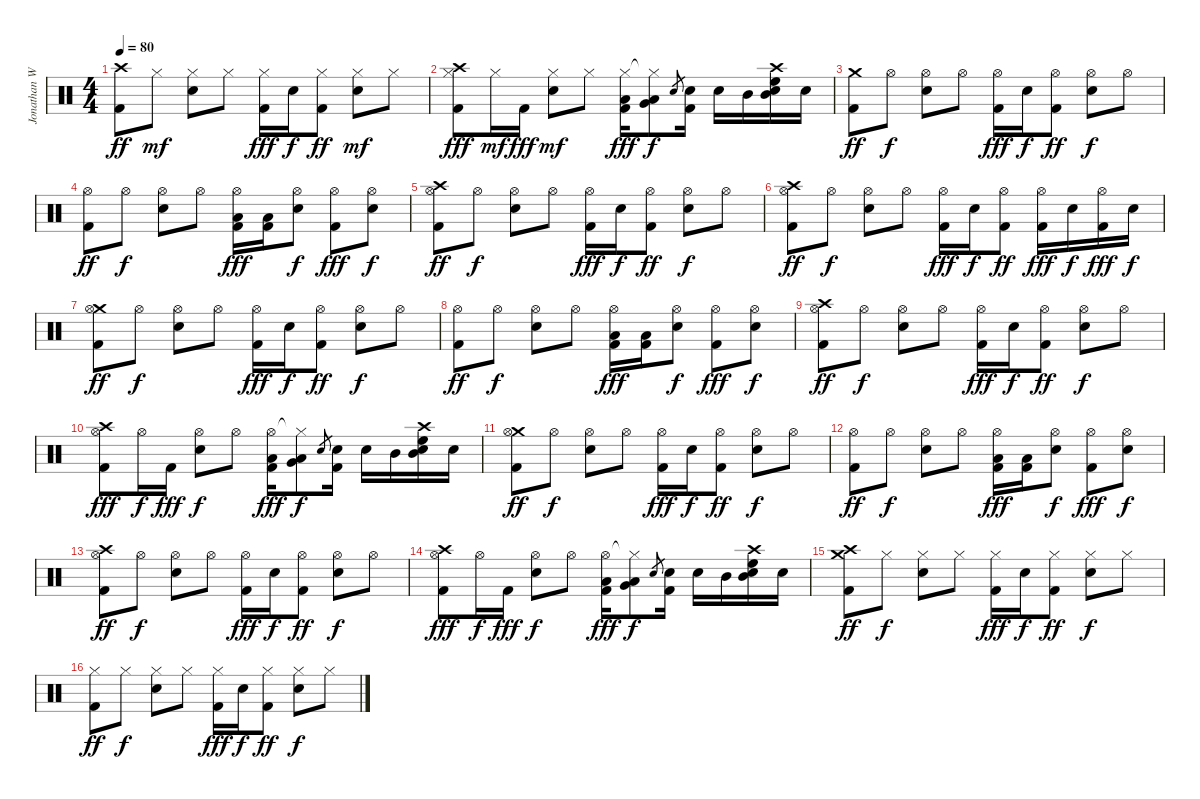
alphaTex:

\track ("Jonathan Wenzel" "Jonathan W") {instrument percussion}
\staff {score}
\articulation defaults
\ts (4 4)
\tempo 80
\clef neutral
\ks c
("Crash high (hit)" "Kick (hit) 2").8{dy ff} "Hi-Hat (closed)".8{dy mf} ("Hi-Hat (closed)" "Electric Snare (hit)").8 "Hi-Hat (closed)".8 ("Hi-Hat (closed)" "Kick (hit) 2").16{dy fff} "Electric Snare (hit)".16{dy f} ("Hi-Hat (closed)" "Kick (hit) 2").8{dy ff} ("Hi-Hat (closed)" "Electric Snare (hit)").8{dy mf} "Hi-Hat (closed)".8 |
("Crash high (hit)" "Hi-Hat (closed)" "Kick (hit) 2").8{dy fff} "Hi-Hat (closed)".16{dy mf} "Kick (hit) 2".16{dy fff} ("Hi-Hat (closed)" "Electric Snare (hit)").8{dy mf} "Hi-Hat (closed)".8 ("Hi-Hat (closed)" "Low Floor Tom (hit)" "Kick (hit) 2").16{dy fff} ("Hi-Hat (closed)"{t} "Low Floor Tom (hit)" "Very Low Tom (hit)").8{dy f} "Electric Snare (hit)".8{gr} ("Electric Snare (hit)" "Kick (hit) 2").16 "Electric Snare (hit)".16 "Mid Tom (hit)".16 ("Crash high (hit)" "High Floor Tom (hit)" "Mid Tom (hit)" "Electric Snare (hit)").16 "Electric Snare (hit)".16 |
("Crash medium (hit)" "Kick (hit) 2").8{dy ff} "Hi-Hat (open)".8{dy f} ("Hi-Hat (open)" "Electric Snare (hit)").8 "Hi-Hat (open)".8 ("Hi-Hat (open)" "Kick (hit) 2").16{dy fff} "Electric Snare (hit)".16{dy f} ("Hi-Hat (open)" "Kick (hit) 2").8{dy ff} ("Hi-Hat (open)" "Electric Snare (hit)").8{dy f} "Hi-Hat (open)".8 |
("Hi-Hat (open)" "Kick (hit) 2").8{dy ff} "Hi-Hat (open)".8{dy f} ("Hi-Hat (open)" "Electric Snare (hit)").8 "Hi-Hat (open)".8 ("Hi-Hat (open)" "Low Floor Tom (hit)" "Kick (hit) 2").16{dy fff} ("Low Floor Tom (hit)" "Kick (hit) 2").16 ("Hi-Hat (open)" "Electric Snare (hit)").8{dy f} ("Hi-Hat (open)" "Kick (hit) 2").8{dy fff} ("Hi-Hat (open)" "Electric Snare (hit)").8{dy f} |
("Crash high (hit)" "Hi-Hat (open)" "Kick (hit) 2").8{dy ff} "Hi-Hat (open)".8{dy f} ("Hi-Hat (open)" "Electric Snare (hit)").8 "Hi-Hat (open)".8 ("Hi-Hat (open)" "Kick (hit) 2").16{dy fff} "Electric Snare (hit)".16{dy f} ("Hi-Hat (open)" "Kick (hit) 2").8{dy ff} ("Hi-Hat (open)" "Electric Snare (hit)").8{dy f} "Hi-Hat (open)".8 |
("Crash high (hit)" "Hi-Hat (open)" "Kick (hit) 2").8{dy ff} "Hi-Hat (open)".8{dy f} ("Hi-Hat (open)" "Electric Snare (hit)").8 "Hi-Hat (open)".8 ("Hi-Hat (open)" "Kick (hit) 2").16{dy fff} "Electric Snare (hit)".16{dy f} ("Hi-Hat (open)" "Kick (hit) 2").8{dy ff} ("Hi-Hat (open)" "Kick (hit) 2").16{dy fff} "Electric Snare (hit)".16{dy f} ("Hi-Hat (open)" "Kick (hit) 2").16{dy fff} "Electric Snare (hit)".16{dy f} |
("Crash medium (hit)" "Hi-Hat (open)" "Kick (hit) 2").8{dy ff} "Hi-Hat (open)".8{dy f} ("Hi-Hat (open)" "Electric Snare (hit)").8 "Hi-Hat (open)".8 ("Hi-Hat (open)" "Kick (hit) 2").16{dy fff} "Electric Snare (hit)".16{dy f} ("Hi-Hat (open)" "Kick (hit) 2").8{dy ff} ("Hi-Hat (open)" "Electric Snare (hit)").8{dy f} "Hi-Hat (open)".8 |
("Hi-Hat (open)" "Kick (hit) 2").8{dy ff} "Hi-Hat (open)".8{dy f} ("Hi-Hat (open)" "Electric Snare (hit)").8 "Hi-Hat (open)".8 ("Hi-Hat (open)" "Low Floor Tom (hit)" "Kick (hit) 2").16{dy fff} ("Low Floor Tom (hit)" "Kick (hit) 2").16 ("Hi-Hat (open)" "Electric Snare (hit)").8{dy f} ("Hi-Hat (open)" "Kick (hit) 2").8{dy fff} ("Hi-Hat (open)" "Electric Snare (hit)").8{dy f} |
("Crash high (hit)" "Hi-Hat (open)" "Kick (hit) 2").8{dy ff} "Hi-Hat (open)".8{dy f} ("Hi-Hat (open)" "Electric Snare (hit)").8 "Hi-Hat (open)".8 ("Hi-Hat (open)" "Kick (hit) 2").16{dy fff} "Electric Snare (hit)".16{dy f} ("Hi-Hat (open)" "Kick (hit) 2").8{dy ff} ("Hi-Hat (open)" "Electric Snare (hit)").8{dy f} "Hi-Hat (open)".8 |
("Crash high (hit)" "Hi-Hat (open)" "Kick (hit) 2").8{dy fff} "Hi-Hat (open)".16{dy f} "Kick (hit) 2".16{dy fff} ("Hi-Hat (open)" "Electric Snare (hit)").8{dy f} "Hi-Hat (open)".8 ("Hi-Hat (open)" "Low Floor Tom (hit)" "Kick (hit) 2").16{dy fff} ("Hi-Hat (closed)"{t} "Low Floor Tom (hit)" "Very Low Tom (hit)").8{dy f} "Electric Snare (hit)".8{gr} ("Electric Snare (hit)" "Kick (hit) 2").16 "Electric Snare (hit)".16 "Mid Tom (hit)".16 ("Crash high (hit)" "High Floor Tom (hit)" "Mid Tom (hit)" "Electric Snare (hit)").16 "Electric Snare (hit)".16 |
("Crash medium (hit)" "Hi-Hat (open)" "Kick (hit) 2").8{dy ff} "Hi-Hat (open)".8{dy f} ("Hi-Hat (open)" "Electric Snare (hit)").8 "Hi-Hat (open)".8 ("Hi-Hat (open)" "Kick (hit) 2").16{dy fff} "Electric Snare (hit)".16{dy f} ("Hi-Hat (open)" "Kick (hit) 2").8{dy ff} ("Hi-Hat (open)" "Electric Snare (hit)").8{dy f} "Hi-Hat (open)".8 |
("Hi-Hat (open)" "Kick (hit) 2").8{dy ff} "Hi-Hat (open)".8{dy f} ("Hi-Hat (open)" "Electric Snare (hit)").8 "Hi-Hat (open)".8 ("Hi-Hat (open)" "Low Floor Tom (hit)" "Kick (hit) 2").16{dy fff} ("Low Floor Tom (hit)" "Kick (hit) 2").16 ("Hi-Hat (open)" "Electric Snare (hit)").8{dy f} ("Hi-Hat (open)" "Kick (hit) 2").8{dy fff} ("Hi-Hat (open)" "Electric Snare (hit)").8{dy f} |
("Crash high (hit)" "Hi-Hat (open)" "Kick (hit) 2").8{dy ff} "Hi-Hat (open)".8{dy f} ("Hi-Hat (open)" "Electric Snare (hit)").8 "Hi-Hat (open)".8 ("Hi-Hat (open)" "Kick (hit) 2").16{dy fff} "Electric Snare (hit)".16{dy f} ("Hi-Hat (open)" "Kick (hit) 2").8{dy ff} ("Hi-Hat (open)" "Electric Snare (hit)").8{dy f} "Hi-Hat (open)".8 |
("Crash high (hit)" "Hi-Hat (open)" "Kick (hit) 2").8{dy fff} "Hi-Hat (open)".16{dy f} "Kick (hit) 2".16{dy fff} ("Hi-Hat (open)" "Electric Snare (hit)").8{dy f} "Hi-Hat (open)".8 ("Hi-Hat (open)" "Low Floor Tom (hit)" "Kick (hit) 2").16{dy fff} ("Hi-Hat (closed)"{t} "Low Floor Tom (hit)" "Very Low Tom (hit)").8{dy f} "Electric Snare (hit)".8{gr} ("Electric Snare (hit)" "Kick (hit) 2").16 "Electric Snare (hit)".16 "Mid Tom (hit)".16 ("Crash high (hit)" "High Floor Tom (hit)" "Mid Tom (hit)" "Electric Snare (hit)").16 "Electric Snare (hit)".16 |
("Crash high (hit)" "Crash medium (hit)" "Kick (hit) 2").8{dy ff} "Hi-Hat (closed)".8{dy f} ("Hi-Hat (closed)" "Electric Snare (hit)").8 "Hi-Hat (closed)".8 ("Hi-Hat (closed)" "Kick (hit) 2").16{dy fff} "Electric Snare (hit)".16{dy f} ("Hi-Hat (closed)" "Kick (hit) 2").8{dy ff} ("Hi-Hat (closed)" "Electric Snare (hit)").8{dy f} "Hi-Hat (closed)".8 |
("Hi-Hat (closed)" "Kick (hit) 2").8{dy ff} "Hi-Hat (closed)".8{dy f} ("Hi-Hat (closed)" "Electric Snare (hit)").8 "Hi-Hat (closed)".8 ("Hi-Hat (closed)" "Kick (hit) 2").16{dy fff} "Electric Snare (hit)".16{dy f} ("Hi-Hat (closed)" "Kick (hit) 2").8{dy ff} ("Hi-Hat (closed)" "Electric Snare (hit)").8{dy f} "Hi-Hat (closed)".8
